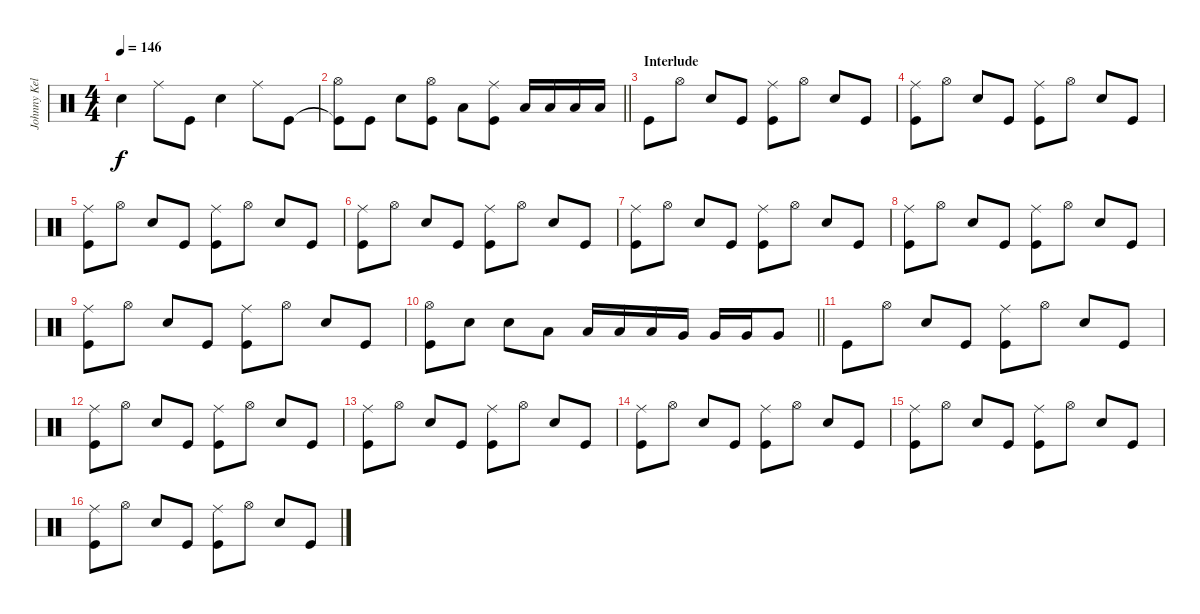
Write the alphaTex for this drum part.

\track ("Johnny Kelly" "Johnny Kel") {instrument percussion}
\staff {score}
\articulation defaults
\ts (4 4)
\tempo 146
\clef neutral
\ks c "Snare (hit) 2".4{dy f} "Ride (middle)".8 "Kick (hit)".8 "Snare (hit) 2".4 "Ride (middle)".8 "Kick (hit)".8
|
\barLineRight lightlight
("Kick (hit)"{t} "Hi-Hat (open)").8 "Kick (hit)".8 "Snare (hit) 2".8 ("Kick (hit)" "Hi-Hat (open)").8 "Low Tom (hit)".8 ("Kick (hit)" "Ride (middle)").8 "Low Tom (hit)".16 "Low Tom (hit)".16 "Low Tom (hit)".16 "Low Tom (hit)".16 |
\section ("" "Interlude")
"Kick (hit)".8 "Hi-Hat (open)".8 "Snare (hit) 2".8 "Kick (hit)".8 ("Kick (hit)" "Ride (middle)").8 "Hi-Hat (open)".8 "Snare (hit) 2".8 "Kick (hit)".8 |
("Kick (hit)" "Ride (middle)").8 "Hi-Hat (open)".8 "Snare (hit) 2".8 "Kick (hit)".8 ("Kick (hit)" "Ride (middle)").8 "Hi-Hat (open)".8 "Snare (hit) 2".8 "Kick (hit)".8 |
("Kick (hit)" "Ride (middle)").8 "Hi-Hat (open)".8 "Snare (hit) 2".8 "Kick (hit)".8 ("Kick (hit)" "Ride (middle)").8 "Hi-Hat (open)".8 "Snare (hit) 2".8 "Kick (hit)".8 |
("Kick (hit)" "Ride (middle)").8 "Hi-Hat (open)".8 "Snare (hit) 2".8 "Kick (hit)".8 ("Kick (hit)" "Ride (middle)").8 "Hi-Hat (open)".8 "Snare (hit) 2".8 "Kick (hit)".8 |
("Kick (hit)" "Ride (middle)").8 "Hi-Hat (open)".8 "Snare (hit) 2".8 "Kick (hit)".8 ("Kick (hit)" "Ride (middle)").8 "Hi-Hat (open)".8 "Snare (hit) 2".8 "Kick (hit)".8 |
("Kick (hit)" "Ride (middle)").8 "Hi-Hat (open)".8 "Snare (hit) 2".8 "Kick (hit)".8 ("Kick (hit)" "Ride (middle)").8 "Hi-Hat (open)".8 "Snare (hit) 2".8 "Kick (hit)".8 |
("Kick (hit)" "Ride (middle)").8 "Hi-Hat (open)".8 "Snare (hit) 2".8 "Kick (hit)".8 ("Kick (hit)" "Ride (middle)").8 "Hi-Hat (open)".8 "Snare (hit) 2".8 "Kick (hit)".8 |
\barLineRight lightlight
("Kick (hit)" "Hi-Hat (open)").8 "Snare (hit) 2".8 "Snare (hit) 2".8 "Low Tom (hit)".8 "Low Tom (hit)".16 "Low Tom (hit)".16 "Low Tom (hit)".16 "Very Low Tom (hit)".16 "Very Low Tom (hit)".16 "Very Low Tom (hit)".16 "Very Low Tom (hit)".8 |
"Kick (hit)".8 "Hi-Hat (open)".8 "Snare (hit) 2".8 "Kick (hit)".8 ("Kick (hit)" "Ride (middle)").8 "Hi-Hat (open)".8 "Snare (hit) 2".8 "Kick (hit)".8 |
("Kick (hit)" "Ride (middle)").8 "Hi-Hat (open)".8 "Snare (hit) 2".8 "Kick (hit)".8 ("Kick (hit)" "Ride (middle)").8 "Hi-Hat (open)".8 "Snare (hit) 2".8 "Kick (hit)".8 |
("Kick (hit)" "Ride (middle)").8 "Hi-Hat (open)".8 "Snare (hit) 2".8 "Kick (hit)".8 ("Kick (hit)" "Ride (middle)").8 "Hi-Hat (open)".8 "Snare (hit) 2".8 "Kick (hit)".8 |
("Kick (hit)" "Ride (middle)").8 "Hi-Hat (open)".8 "Snare (hit) 2".8 "Kick (hit)".8 ("Kick (hit)" "Ride (middle)").8 "Hi-Hat (open)".8 "Snare (hit) 2".8 "Kick (hit)".8 |
("Kick (hit)" "Ride (middle)").8 "Hi-Hat (open)".8 "Snare (hit) 2".8 "Kick (hit)".8 ("Kick (hit)" "Ride (middle)").8 "Hi-Hat (open)".8 "Snare (hit) 2".8 "Kick (hit)".8 |
("Kick (hit)" "Ride (middle)").8 "Hi-Hat (open)".8 "Snare (hit) 2".8 "Kick (hit)".8 ("Kick (hit)" "Ride (middle)").8 "Hi-Hat (open)".8 "Snare (hit) 2".8 "Kick (hit)".8
